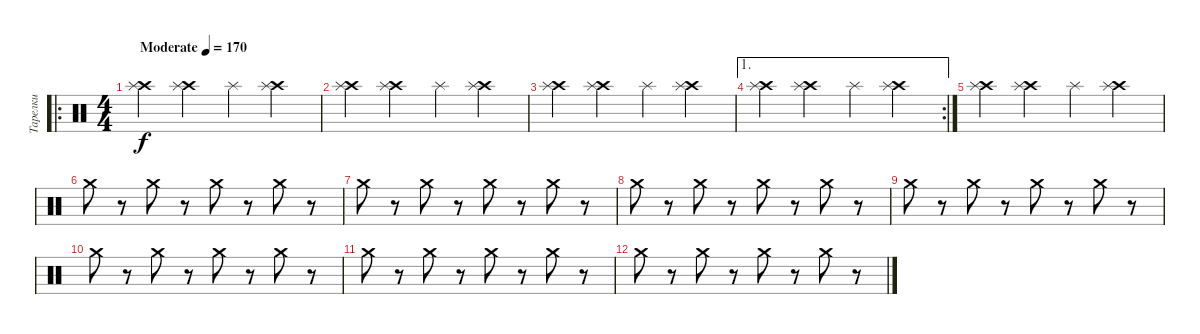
\track ("Тарелки" "Тарелки") {instrument percussion}
\staff {score}
\articulation defaults
\ro
\ts (4 4)
\tempo (170 "Moderate")
\clef neutral
\ks c
("Crash high (hit)" "Splash (hit)").4{dy f} ("Crash high (hit)" "Splash (hit)").4 "Splash (hit)".4 ("Crash high (hit)" "Splash (hit)").4 |
("Crash high (hit)" "Splash (hit)").4 ("Crash high (hit)" "Splash (hit)").4 "Splash (hit)".4 ("Crash high (hit)" "Splash (hit)").4 |
("Crash high (hit)" "Splash (hit)").4 ("Crash high (hit)" "Splash (hit)").4 "Splash (hit)".4 ("Crash high (hit)" "Splash (hit)").4 |
\ae 1
\rc 2
("Crash high (hit)" "Splash (hit)").4 ("Crash high (hit)" "Splash (hit)").4 "Splash (hit)".4 ("Crash high (hit)" "Splash (hit)").4 |
("Crash high (hit)" "Splash (hit)").4 ("Crash high (hit)" "Splash (hit)").4 "Splash (hit)".4 ("Crash high (hit)" "Splash (hit)").4 |
"Crash medium (hit)".8 r.8 "Crash medium (hit)".8 r.8 "Crash medium (hit)".8 r.8 "Crash medium (hit)".8 r.8 |
"Crash medium (hit)".8 r.8 "Crash medium (hit)".8 r.8 "Crash medium (hit)".8 r.8 "Crash medium (hit)".8 r.8 |
"Crash medium (hit)".8 r.8 "Crash medium (hit)".8 r.8 "Crash medium (hit)".8 r.8 "Crash medium (hit)".8 r.8 |
"Crash medium (hit)".8 r.8 "Crash medium (hit)".8 r.8 "Crash medium (hit)".8 r.8 "Crash medium (hit)".8 r.8 |
"Crash medium (hit)".8 r.8 "Crash medium (hit)".8 r.8 "Crash medium (hit)".8 r.8 "Crash medium (hit)".8 r.8 |
"Crash medium (hit)".8 r.8 "Crash medium (hit)".8 r.8 "Crash medium (hit)".8 r.8 "Crash medium (hit)".8 r.8 |
"Crash medium (hit)".8 r.8 "Crash medium (hit)".8 r.8 "Crash medium (hit)".8 r.8 "Crash medium (hit)".8 r.8
